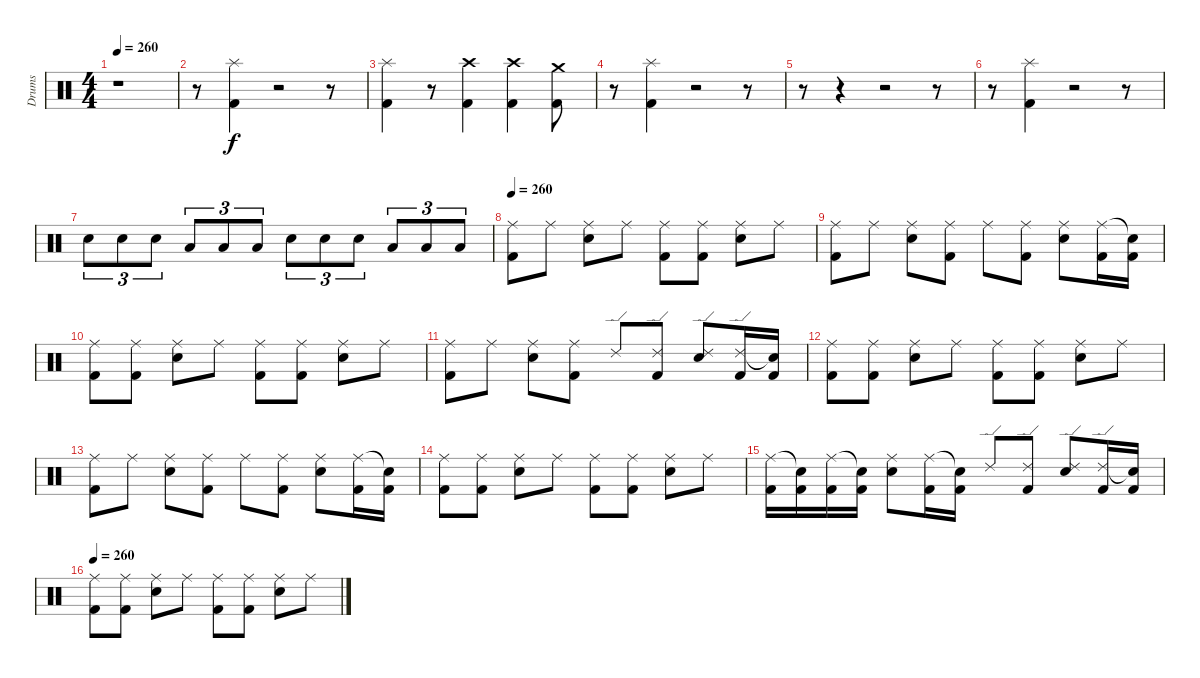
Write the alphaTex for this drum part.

\track ("Drums" "Drums") {instrument percussion}
\staff {score}
\articulation defaults
\ts (4 4)
\tempo 260
\clef neutral
\ks c
r.1{dy f} |
r.8 ("Splash (hit)" "Kick (hit) 2").4 r.2 r.8 |
("Splash (hit)" "Kick (hit) 2").4 r.8 ("Crash high (hit)" "Kick (hit) 2").4 ("Crash high (hit)" "Kick (hit) 2").4 ("Crash medium (hit)" "Kick (hit) 2").8 |
r.8 ("Splash (hit)" "Kick (hit) 2").4 r.2 r.8 |
r.8 r.4 r.2 r.8 |
r.8 ("Splash (hit)" "Kick (hit) 2").4 r.2 r.8 |
"Electric Snare (hit)".8{tu (3 2)} "Electric Snare (hit)".8{tu (3 2)} "Electric Snare (hit)".8{tu (3 2)} "Low Tom (hit)".8{tu (3 2)} "Low Tom (hit)".8{tu (3 2)} "Low Tom (hit)".8{tu (3 2)} "Electric Snare (hit)".8{tu (3 2)} "Electric Snare (hit)".8{tu (3 2)} "Electric Snare (hit)".8{tu (3 2)} "Low Tom (hit)".8{tu (3 2)} "Low Tom (hit)".8{tu (3 2)} "Low Tom (hit)".8{tu (3 2)} |
\tempo 260
("Ride (middle)" "Kick (hit) 2").8 "Ride (middle)".8 ("Ride (middle)" "Electric Snare (hit)").8 "Ride (middle)".8 ("Ride (middle)" "Kick (hit) 2").8 ("Ride (middle)" "Kick (hit) 2").8 ("Ride (middle)" "Electric Snare (hit)").8 "Ride (middle)".8 |
("Ride (middle)" "Kick (hit) 2").8 "Ride (middle)".8 ("Ride (middle)" "Electric Snare (hit)").8 ("Ride (middle)" "Kick (hit) 2").8 "Ride (middle)".8 ("Ride (middle)" "Kick (hit) 2").8 ("Ride (middle)" "Electric Snare (hit)").8 ("Ride (middle)" "Kick (hit) 2").16 ("Snare (hit)"{t} "Kick (hit) 2").16 |
("Ride (middle)" "Kick (hit) 2").8 ("Ride (middle)" "Kick (hit) 2").8 ("Ride (middle)" "Electric Snare (hit)").8 "Ride (middle)".8 ("Ride (middle)" "Kick (hit) 2").8 ("Ride (middle)" "Kick (hit) 2").8 ("Ride (middle)" "Electric Snare (hit)").8 "Ride (middle)".8 |
("Ride (middle)" "Kick (hit) 2").8 "Ride (middle)".8 ("Ride (middle)" "Electric Snare (hit)").8 ("Ride (middle)" "Kick (hit) 2").8 "Ride (edge) 2".8 ("Ride (edge) 2" "Kick (hit) 2").8 ("Ride (edge) 2" "Electric Snare (hit)").8 ("Ride (edge) 2" "Kick (hit) 2").16 ("Snare (hit)"{t} "Kick (hit) 2").16 |
("Ride (middle)" "Kick (hit) 2").8 ("Ride (middle)" "Kick (hit) 2").8 ("Ride (middle)" "Electric Snare (hit)").8 "Ride (middle)".8 ("Ride (middle)" "Kick (hit) 2").8 ("Ride (middle)" "Kick (hit) 2").8 ("Ride (middle)" "Electric Snare (hit)").8 "Ride (middle)".8 |
("Ride (middle)" "Kick (hit) 2").8 "Ride (middle)".8 ("Ride (middle)" "Electric Snare (hit)").8 ("Ride (middle)" "Kick (hit) 2").8 "Ride (middle)".8 ("Ride (middle)" "Kick (hit) 2").8 ("Ride (middle)" "Electric Snare (hit)").8 ("Ride (middle)" "Kick (hit) 2").16 ("Snare (hit)"{t} "Kick (hit) 2").16 |
("Ride (middle)" "Kick (hit) 2").8 ("Ride (middle)" "Kick (hit) 2").8 ("Ride (middle)" "Electric Snare (hit)").8 "Ride (middle)".8 ("Ride (middle)" "Kick (hit) 2").8 ("Ride (middle)" "Kick (hit) 2").8 ("Ride (middle)" "Electric Snare (hit)").8 "Ride (middle)".8 |
("Ride (middle)" "Kick (hit) 2").16 ("Snare (hit)"{t} "Kick (hit) 2").16 ("Ride (middle)" "Kick (hit) 2").16 ("Snare (hit)"{t} "Kick (hit) 2").16 ("Ride (middle)" "Electric Snare (hit)").8 ("Ride (middle)" "Kick (hit) 2").16 ("Snare (hit)"{t} "Kick (hit) 2").16 "Ride (edge) 2".8 ("Ride (edge) 2" "Kick (hit) 2").8 ("Ride (edge) 2" "Electric Snare (hit)").8 ("Ride (edge) 2" "Kick (hit) 2").16 ("Snare (hit)"{t} "Kick (hit) 2").16 |
\tempo 260
("Ride (middle)" "Kick (hit) 2").8 ("Ride (middle)" "Kick (hit) 2").8 ("Ride (middle)" "Electric Snare (hit)").8 "Ride (middle)".8 ("Ride (middle)" "Kick (hit) 2").8 ("Ride (middle)" "Kick (hit) 2").8 ("Ride (middle)" "Electric Snare (hit)").8 "Ride (middle)".8
